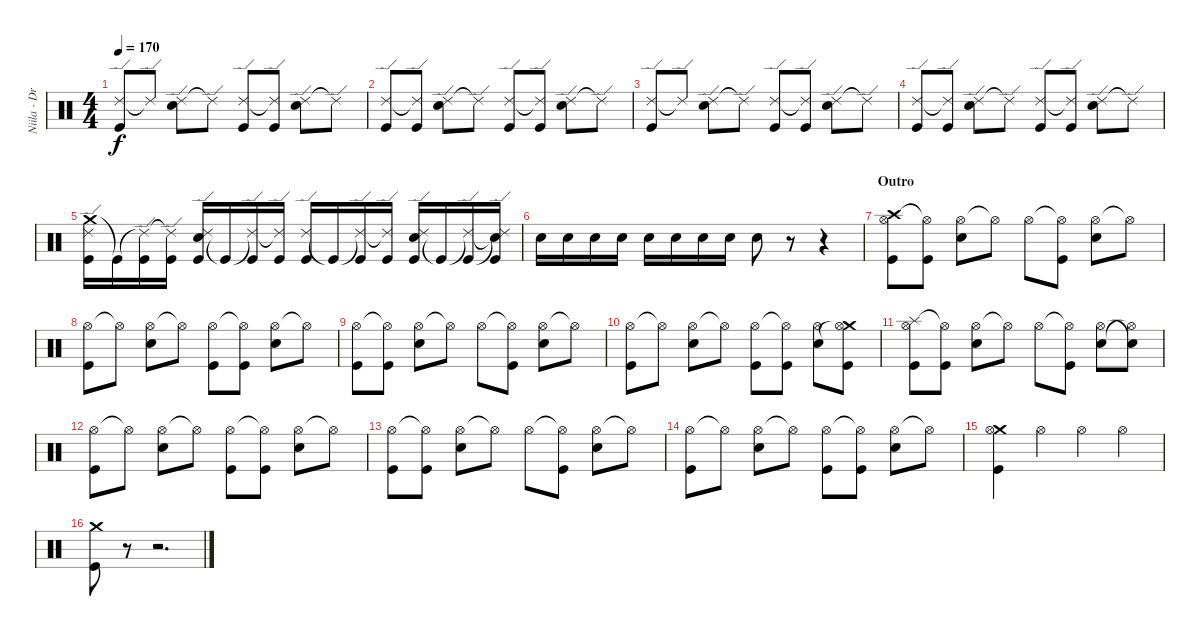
\track ("Niila - Drums" "Niila - Dr") {instrument percussion}
\staff {score}
\articulation defaults
\ts (4 4)
\tempo 170
\clef neutral
\ks c
("Ride (edge) 2" "Kick (hit)").8{dy f} "Ride (edge) 2"{t}.8 ("Ride (edge) 2" "Snare (hit) 2").8 "Ride (edge) 2"{t}.8 ("Ride (edge) 2" "Kick (hit)").8 ("Ride (edge) 2"{t} "Kick (hit)").8 ("Ride (edge) 2" "Snare (hit) 2").8 "Ride (edge) 2"{t}.8 |
("Ride (edge) 2" "Kick (hit)").8 ("Ride (edge) 2"{t} "Kick (hit)").8 ("Ride (edge) 2" "Snare (hit) 2").8 "Ride (edge) 2"{t}.8 ("Ride (edge) 2" "Kick (hit)").8 ("Ride (edge) 2"{t} "Kick (hit)").8 ("Ride (edge) 2" "Snare (hit) 2").8 "Ride (edge) 2"{t}.8 |
("Ride (edge) 2" "Kick (hit)").8 "Ride (edge) 2"{t}.8 ("Ride (edge) 2" "Snare (hit) 2").8 "Ride (edge) 2"{t}.8 ("Ride (edge) 2" "Kick (hit)").8 ("Ride (edge) 2"{t} "Kick (hit)").8 ("Ride (edge) 2" "Snare (hit) 2").8 "Ride (edge) 2"{t}.8 |
("Ride (edge) 2" "Kick (hit)").8 ("Ride (edge) 2"{t} "Kick (hit)").8 ("Ride (edge) 2" "Snare (hit) 2").8 "Ride (edge) 2"{t}.8 ("Ride (edge) 2" "Kick (hit)").8 ("Ride (edge) 2"{t} "Kick (hit)").8 ("Ride (edge) 2" "Snare (hit) 2").8 "Ride (edge) 2"{t}.8 |
("Crash medium (hit)" "Ride (edge) 2" "Kick (hit)").16 "Kick (hit)"{t}.16 ("Ride (edge) 2"{t} "Kick (hit)").16 ("Ride (edge) 2"{t} "Kick (hit)").16 ("Ride (edge) 2" "Snare (hit) 2" "Kick (hit)").16 "Kick (hit)"{t}.16 ("Ride (edge) 2"{t} "Kick (hit)").16 ("Ride (edge) 2"{t} "Kick (hit)").16 ("Ride (edge) 2" "Kick (hit)").16 "Kick (hit)"{t}.16 ("Ride (edge) 2"{t} "Kick (hit)").16 ("Ride (edge) 2"{t} "Kick (hit)").16 ("Ride (edge) 2" "Snare (hit) 2" "Kick (hit)").16 "Kick (hit)"{t}.16 ("Ride (edge) 2"{t} "Kick (hit)").16 ("Snare (hit)"{t} "Ride (edge) 2"{t} "Kick (hit)").16 |
"Snare (hit) 2".16 "Snare (hit) 2".16 "Snare (hit) 2".16 "Snare (hit) 2".16 "Snare (hit) 2".16 "Snare (hit) 2".16 "Snare (hit) 2".16 "Snare (hit) 2".16 "Snare (hit) 2".8 r.8 r.4 |
\section ("" "Outro")
("Crash high (hit)" "Hi-Hat (open)" "Kick (hit)").8 ("Hi-Hat (open)"{t} "Kick (hit)").8 ("Hi-Hat (open)" "Snare (hit) 2").8 "Hi-Hat (open)"{t}.8 "Hi-Hat (open)".8 ("Hi-Hat (open)"{t} "Kick (hit)").8 ("Hi-Hat (open)" "Snare (hit) 2").8 "Hi-Hat (open)"{t}.8 |
("Hi-Hat (open)" "Kick (hit)").8 "Hi-Hat (open)"{t}.8 ("Hi-Hat (open)" "Snare (hit) 2").8 "Hi-Hat (open)"{t}.8 ("Hi-Hat (open)" "Kick (hit)").8 ("Hi-Hat (open)"{t} "Kick (hit)").8 ("Hi-Hat (open)" "Snare (hit) 2").8 "Hi-Hat (open)"{t}.8 |
("Hi-Hat (open)" "Kick (hit)").8 ("Hi-Hat (open)"{t} "Kick (hit)").8 ("Hi-Hat (open)" "Snare (hit) 2").8 "Hi-Hat (open)"{t}.8 "Hi-Hat (open)".8 ("Hi-Hat (open)"{t} "Kick (hit)").8 ("Hi-Hat (open)" "Snare (hit) 2").8 "Hi-Hat (open)"{t}.8 |
("Hi-Hat (open)" "Kick (hit)").8 "Hi-Hat (open)"{t}.8 ("Hi-Hat (open)" "Snare (hit) 2").8 "Hi-Hat (open)"{t}.8 ("Hi-Hat (open)" "Kick (hit)").8 ("Hi-Hat (open)"{t} "Kick (hit)").8 ("Hi-Hat (open)" "Snare (hit) 2").8 ("Crash medium (hit)" "Hi-Hat (open)"{t} "Kick (hit)").8 |
("Splash (hit)" "Hi-Hat (open)" "Kick (hit)").8 ("Hi-Hat (open)"{t} "Kick (hit)").8 ("Hi-Hat (open)" "Snare (hit) 2").8 "Hi-Hat (open)"{t}.8 "Hi-Hat (open)".8 ("Hi-Hat (open)"{t} "Kick (hit)").8 ("Hi-Hat (open)" "Snare (hit) 2").8 ("Snare (hit)"{t} "Hi-Hat (open)"{t}).8 |
("Hi-Hat (open)" "Kick (hit)").8 "Hi-Hat (open)"{t}.8 ("Hi-Hat (open)" "Snare (hit) 2").8 "Hi-Hat (open)"{t}.8 ("Hi-Hat (open)" "Kick (hit)").8 ("Hi-Hat (open)"{t} "Kick (hit)").8 ("Hi-Hat (open)" "Snare (hit) 2").8 "Hi-Hat (open)"{t}.8 |
("Hi-Hat (open)" "Kick (hit)").8 ("Hi-Hat (open)"{t} "Kick (hit)").8 ("Hi-Hat (open)" "Snare (hit) 2").8 "Hi-Hat (open)"{t}.8 "Hi-Hat (open)".8 ("Hi-Hat (open)"{t} "Kick (hit)").8 ("Hi-Hat (open)" "Snare (hit) 2").8 "Hi-Hat (open)"{t}.8 |
("Hi-Hat (open)" "Kick (hit)").8 "Hi-Hat (open)"{t}.8 ("Hi-Hat (open)" "Snare (hit) 2").8 "Hi-Hat (open)"{t}.8 ("Hi-Hat (open)" "Kick (hit)").8 ("Hi-Hat (open)"{t} "Kick (hit)").8 ("Hi-Hat (open)" "Snare (hit) 2").8 "Hi-Hat (open)"{t}.8 |
("Crash medium (hit)" "Hi-Hat (open)" "Kick (hit)").4 "Hi-Hat (open)".4 "Hi-Hat (open)".4 "Hi-Hat (open)".4 |
("Crash medium (hit)" "Kick (hit)").8 r.8 r.2{d}
